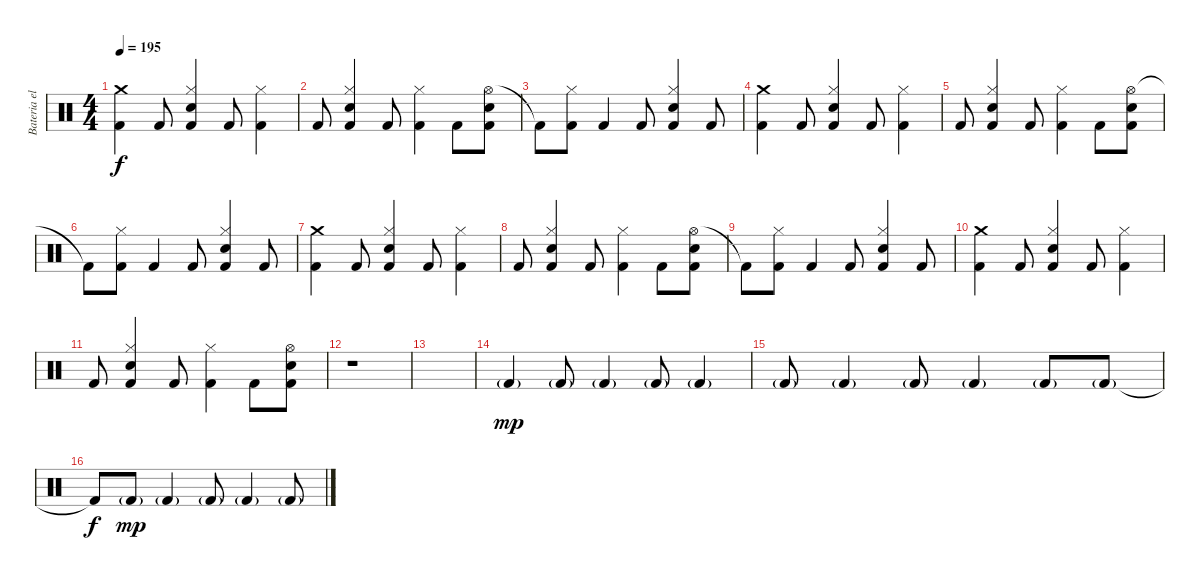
\track ("Bateria electrica" "Bateria el") {instrument percussion}
\staff {score}
\articulation defaults
\ts (4 4)
\tempo 195
\clef neutral
\ks c
("Crash medium (hit)" "Kick (hit) 2").4{dy f} "Kick (hit) 2".8 ("Hi-Hat (closed)" "Kick (hit) 2" "Snare (hit) 2").4 "Kick (hit) 2".8 ("Hi-Hat (closed)" "Kick (hit) 2").4 |
"Kick (hit) 2".8 ("Hi-Hat (closed)" "Kick (hit) 2" "Snare (hit) 2").4 "Kick (hit) 2".8 ("Hi-Hat (closed)" "Kick (hit) 2").4 "Kick (hit) 2".8 ("Hi-Hat (open)" "Kick (hit) 2" "Snare (hit) 2").8 |
"Kick (hit) 2"{t}.8 ("Hi-Hat (closed)" "Kick (hit) 2").8 "Kick (hit) 2".4 "Kick (hit) 2".8 ("Hi-Hat (closed)" "Kick (hit) 2" "Snare (hit) 2").4 "Kick (hit) 2".8 |
("Crash medium (hit)" "Kick (hit) 2").4 "Kick (hit) 2".8 ("Hi-Hat (closed)" "Kick (hit) 2" "Snare (hit) 2").4 "Kick (hit) 2".8 ("Hi-Hat (closed)" "Kick (hit) 2").4 |
"Kick (hit) 2".8 ("Hi-Hat (closed)" "Kick (hit) 2" "Snare (hit) 2").4 "Kick (hit) 2".8 ("Hi-Hat (closed)" "Kick (hit) 2").4 "Kick (hit) 2".8 ("Hi-Hat (open)" "Kick (hit) 2" "Snare (hit) 2").8 |
"Kick (hit) 2"{t}.8 ("Hi-Hat (closed)" "Kick (hit) 2").8 "Kick (hit) 2".4 "Kick (hit) 2".8 ("Hi-Hat (closed)" "Kick (hit) 2" "Snare (hit) 2").4 "Kick (hit) 2".8 |
("Crash medium (hit)" "Kick (hit) 2").4 "Kick (hit) 2".8 ("Hi-Hat (closed)" "Kick (hit) 2" "Snare (hit) 2").4 "Kick (hit) 2".8 ("Hi-Hat (closed)" "Kick (hit) 2").4 |
"Kick (hit) 2".8 ("Hi-Hat (closed)" "Kick (hit) 2" "Snare (hit) 2").4 "Kick (hit) 2".8 ("Hi-Hat (closed)" "Kick (hit) 2").4 "Kick (hit) 2".8 ("Hi-Hat (open)" "Kick (hit) 2" "Snare (hit) 2").8 |
"Kick (hit) 2"{t}.8 ("Hi-Hat (closed)" "Kick (hit) 2").8 "Kick (hit) 2".4 "Kick (hit) 2".8 ("Hi-Hat (closed)" "Kick (hit) 2" "Snare (hit) 2").4 "Kick (hit) 2".8 |
("Crash medium (hit)" "Kick (hit) 2").4 "Kick (hit) 2".8 ("Hi-Hat (closed)" "Kick (hit) 2" "Snare (hit) 2").4 "Kick (hit) 2".8 ("Hi-Hat (closed)" "Kick (hit) 2").4 |
"Kick (hit) 2".8 ("Hi-Hat (closed)" "Kick (hit) 2" "Snare (hit) 2").4 "Kick (hit) 2".8 ("Hi-Hat (closed)" "Kick (hit) 2").4 "Kick (hit) 2".8 ("Hi-Hat (open)" "Kick (hit) 2" "Snare (hit) 2").8 |
r.1 |
|
"Kick (hit) 2"{g}.4{dy mp volume 10} "Kick (hit) 2"{g}.8 "Kick (hit) 2"{g}.4 "Kick (hit) 2"{g}.8 "Kick (hit) 2"{g}.4 |
"Kick (hit) 2"{g}.8 "Kick (hit) 2"{g}.4 "Kick (hit) 2"{g}.8 "Kick (hit) 2"{g}.4 "Kick (hit) 2"{g}.8 "Kick (hit) 2"{g}.8 |
"Kick (hit) 2"{t}.8{dy f} "Kick (hit) 2"{g}.8{dy mp} "Kick (hit) 2"{g}.4 "Kick (hit) 2"{g}.8 "Kick (hit) 2"{g}.4 "Kick (hit) 2"{g}.8
